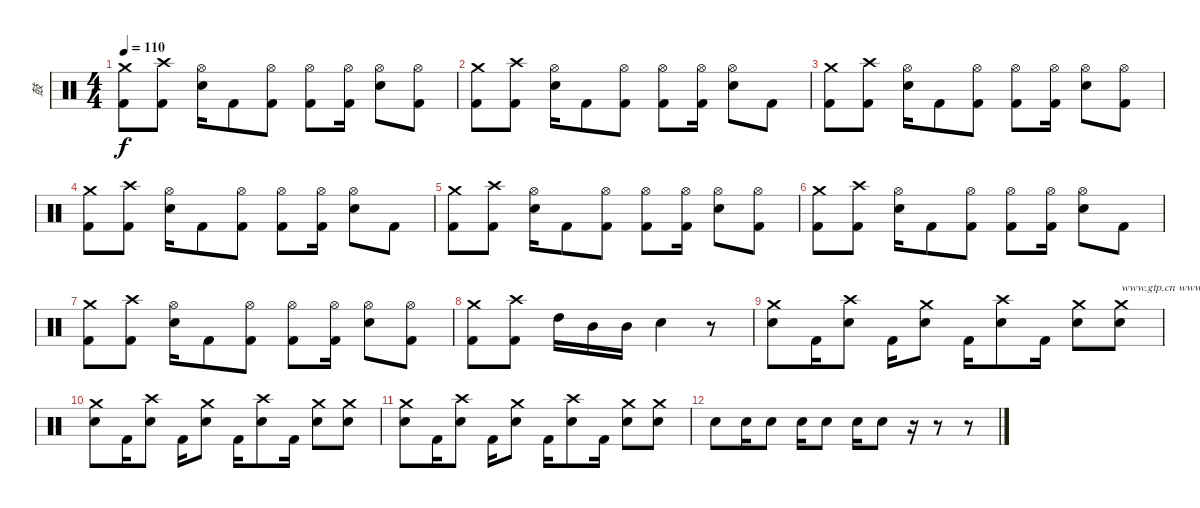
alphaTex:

\track ("鼓" "鼓") {instrument percussion}
\staff {score}
\articulation defaults
\ts (4 4)
\tempo 110
\clef neutral
\ks c
("Kick (hit) 2" "Crash medium (hit)").8{dy f} ("Kick (hit) 2" "Crash high (hit)").8 ("Electric Snare (hit)" "Hi-Hat (open)").16 "Kick (hit) 2".8 ("Kick (hit) 2" "Hi-Hat (open)").8 ("Kick (hit) 2" "Hi-Hat (open)").8 ("Kick (hit) 2" "Hi-Hat (open)").16 ("Electric Snare (hit)" "Hi-Hat (open)").8 ("Kick (hit) 2" "Hi-Hat (open)").8 |
("Kick (hit) 2" "Crash medium (hit)").8 ("Kick (hit) 2" "Crash high (hit)").8 ("Electric Snare (hit)" "Hi-Hat (open)").16 "Kick (hit) 2".8 ("Kick (hit) 2" "Hi-Hat (open)").8 ("Kick (hit) 2" "Hi-Hat (open)").8 ("Kick (hit) 2" "Hi-Hat (open)").16 ("Electric Snare (hit)" "Hi-Hat (open)").8 "Kick (hit) 2".8 |
("Kick (hit) 2" "Crash medium (hit)").8 ("Kick (hit) 2" "Crash high (hit)").8 ("Electric Snare (hit)" "Hi-Hat (open)").16 "Kick (hit) 2".8 ("Kick (hit) 2" "Hi-Hat (open)").8 ("Kick (hit) 2" "Hi-Hat (open)").8 ("Kick (hit) 2" "Hi-Hat (open)").16 ("Electric Snare (hit)" "Hi-Hat (open)").8 ("Kick (hit) 2" "Hi-Hat (open)").8 |
("Kick (hit) 2" "Crash medium (hit)").8 ("Kick (hit) 2" "Crash high (hit)").8 ("Electric Snare (hit)" "Hi-Hat (open)").16 "Kick (hit) 2".8 ("Kick (hit) 2" "Hi-Hat (open)").8 ("Kick (hit) 2" "Hi-Hat (open)").8 ("Kick (hit) 2" "Hi-Hat (open)").16 ("Electric Snare (hit)" "Hi-Hat (open)").8 "Kick (hit) 2".8 |
("Kick (hit) 2" "Crash medium (hit)").8 ("Kick (hit) 2" "Crash high (hit)").8 ("Electric Snare (hit)" "Hi-Hat (open)").16 "Kick (hit) 2".8 ("Kick (hit) 2" "Hi-Hat (open)").8 ("Kick (hit) 2" "Hi-Hat (open)").8 ("Kick (hit) 2" "Hi-Hat (open)").16 ("Electric Snare (hit)" "Hi-Hat (open)").8 ("Kick (hit) 2" "Hi-Hat (open)").8 |
("Kick (hit) 2" "Crash medium (hit)").8 ("Kick (hit) 2" "Crash high (hit)").8 ("Electric Snare (hit)" "Hi-Hat (open)").16 "Kick (hit) 2".8 ("Kick (hit) 2" "Hi-Hat (open)").8 ("Kick (hit) 2" "Hi-Hat (open)").8 ("Kick (hit) 2" "Hi-Hat (open)").16 ("Electric Snare (hit)" "Hi-Hat (open)").8 "Kick (hit) 2".8 |
("Kick (hit) 2" "Crash medium (hit)").8 ("Kick (hit) 2" "Crash high (hit)").8 ("Electric Snare (hit)" "Hi-Hat (open)").16 "Kick (hit) 2".8 ("Kick (hit) 2" "Hi-Hat (open)").8 ("Kick (hit) 2" "Hi-Hat (open)").8 ("Kick (hit) 2" "Hi-Hat (open)").16 ("Electric Snare (hit)" "Hi-Hat (open)").8 ("Kick (hit) 2" "Hi-Hat (open)").8 |
("Kick (hit) 2" "Crash medium (hit)").8 ("Kick (hit) 2" "Crash high (hit)").8 "High Tom (hit)".16 "Mid Tom (hit)".16 "Mid Tom (hit)".16 "Electric Snare (hit)".4 r.8 |
("Electric Snare (hit)" "Crash medium (hit)").8 "Kick (hit) 2".16 ("Electric Snare (hit)" "Crash high (hit)").8 "Kick (hit) 2".16 ("Electric Snare (hit)" "Crash medium (hit)").8 "Kick (hit) 2".16 ("Electric Snare (hit)" "Crash high (hit)").8 "Kick (hit) 2".16 ("Electric Snare (hit)" "Crash medium (hit)").8 ("Electric Snare (hit)" "Crash medium (hit)").8{txt "www.gtp.cn www.51gtp.com联合为您提供优秀的GTP!"} |
("Electric Snare (hit)" "Crash medium (hit)").8 "Kick (hit) 2".16 ("Electric Snare (hit)" "Crash high (hit)").8 "Kick (hit) 2".16 ("Electric Snare (hit)" "Crash medium (hit)").8 "Kick (hit) 2".16 ("Electric Snare (hit)" "Crash high (hit)").8 "Kick (hit) 2".16 ("Electric Snare (hit)" "Crash medium (hit)").8 ("Electric Snare (hit)" "Crash medium (hit)").8 |
("Electric Snare (hit)" "Crash medium (hit)").8 "Kick (hit) 2".16 ("Electric Snare (hit)" "Crash high (hit)").8 "Kick (hit) 2".16 ("Electric Snare (hit)" "Crash medium (hit)").8 "Kick (hit) 2".16 ("Electric Snare (hit)" "Crash high (hit)").8 "Kick (hit) 2".16 ("Electric Snare (hit)" "Crash medium (hit)").8 ("Electric Snare (hit)" "Crash medium (hit)").8 |
"Electric Snare (hit)".8 "Electric Snare (hit)".16 "Electric Snare (hit)".8 "Electric Snare (hit)".16 "Electric Snare (hit)".8 "Electric Snare (hit)".16 "Electric Snare (hit)".8 r.16 r.8 r.8
